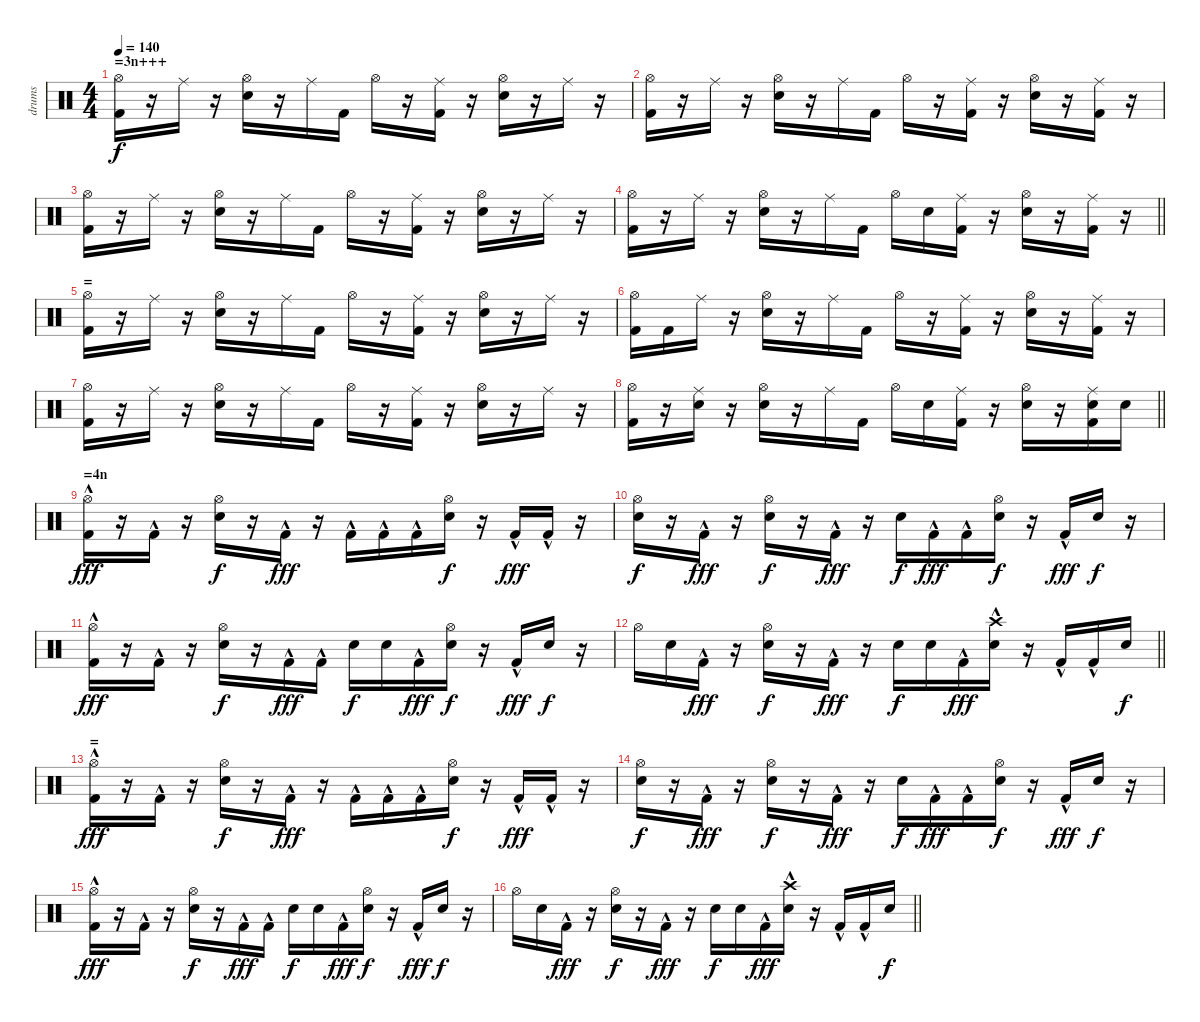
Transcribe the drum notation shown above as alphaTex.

\track ("drums" "drums") {instrument percussion}
\staff {score}
\articulation defaults
\ts (4 4)
\section ("" "=3n+++")
\tempo 140
\clef neutral
\ks c
("Kick (hit) 2" "Hi-Hat (open)").16{dy f} r.16 "Ride (middle)".16 r.16 ("Electric Snare (hit)" "Hi-Hat (open)").16 r.16 "Ride (middle)".16 "Kick (hit) 2".16 "Hi-Hat (open)".16 r.16 ("Kick (hit) 2" "Ride (middle)").16 r.16 ("Electric Snare (hit)" "Hi-Hat (open)").16 r.16 "Ride (middle)".16 r.16 |
("Kick (hit) 2" "Hi-Hat (open)").16 r.16 "Ride (middle)".16 r.16 ("Electric Snare (hit)" "Hi-Hat (open)").16 r.16 "Ride (middle)".16 "Kick (hit) 2".16 "Hi-Hat (open)".16 r.16 ("Kick (hit) 2" "Ride (middle)").16 r.16 ("Electric Snare (hit)" "Hi-Hat (open)").16 r.16 ("Kick (hit) 2" "Ride (middle)").16 r.16 |
("Kick (hit) 2" "Hi-Hat (open)").16 r.16 "Ride (middle)".16 r.16 ("Electric Snare (hit)" "Hi-Hat (open)").16 r.16 "Ride (middle)".16 "Kick (hit) 2".16 "Hi-Hat (open)".16 r.16 ("Kick (hit) 2" "Ride (middle)").16 r.16 ("Electric Snare (hit)" "Hi-Hat (open)").16 r.16 "Ride (middle)".16 r.16 |
\barLineRight lightlight
("Kick (hit) 2" "Hi-Hat (open)").16 r.16 "Ride (middle)".16 r.16 ("Electric Snare (hit)" "Hi-Hat (open)").16 r.16 "Ride (middle)".16 "Kick (hit) 2".16 "Hi-Hat (open)".16 "Electric Snare (hit)".16 ("Kick (hit) 2" "Ride (middle)").16 r.16 ("Electric Snare (hit)" "Hi-Hat (open)").16 r.16 ("Kick (hit) 2" "Ride (middle)").16 r.16 |
\section ("" "=")
("Kick (hit) 2" "Hi-Hat (open)").16 r.16 "Ride (middle)".16 r.16 ("Electric Snare (hit)" "Hi-Hat (open)").16 r.16 "Ride (middle)".16 "Kick (hit) 2".16 "Hi-Hat (open)".16 r.16 ("Kick (hit) 2" "Ride (middle)").16 r.16 ("Electric Snare (hit)" "Hi-Hat (open)").16 r.16 "Ride (middle)".16 r.16 |
("Kick (hit) 2" "Hi-Hat (open)").16 "Kick (hit) 2".16 "Ride (middle)".16 r.16 ("Electric Snare (hit)" "Hi-Hat (open)").16 r.16 "Ride (middle)".16 "Kick (hit) 2".16 "Hi-Hat (open)".16 r.16 ("Kick (hit) 2" "Ride (middle)").16 r.16 ("Electric Snare (hit)" "Hi-Hat (open)").16 r.16 ("Kick (hit) 2" "Ride (middle)").16 r.16 |
("Kick (hit) 2" "Hi-Hat (open)").16 r.16 "Ride (middle)".16 r.16 ("Electric Snare (hit)" "Hi-Hat (open)").16 r.16 "Ride (middle)".16 "Kick (hit) 2".16 "Hi-Hat (open)".16 r.16 ("Kick (hit) 2" "Ride (middle)").16 r.16 ("Electric Snare (hit)" "Hi-Hat (open)").16 r.16 "Ride (middle)".16 r.16 |
\barLineRight lightlight
("Kick (hit) 2" "Hi-Hat (open)").16 r.16 ("Electric Snare (hit)" "Ride (middle)").16 r.16 ("Electric Snare (hit)" "Hi-Hat (open)").16 r.16 "Ride (middle)".16 "Kick (hit) 2".16 "Hi-Hat (open)".16 "Electric Snare (hit)".16 ("Kick (hit) 2" "Ride (middle)").16 r.16 ("Electric Snare (hit)" "Hi-Hat (open)").16 r.16 ("Kick (hit) 2" "Electric Snare (hit)" "Ride (middle)").16 "Electric Snare (hit)".16 |
\section ("" "=4n")
("Kick (hit) 2"{hac} "Hi-Hat (open)").16{dy fff} r.16 "Kick (hit) 2"{hac}.16 r.16 ("Electric Snare (hit)" "Hi-Hat (open)").16{dy f} r.16 "Kick (hit) 2"{hac}.16{dy fff} r.16 "Kick (hit) 2"{hac}.16 "Kick (hit) 2"{hac}.16 "Kick (hit) 2"{hac}.16 ("Electric Snare (hit)" "Hi-Hat (open)").16{dy f} r.16 "Kick (hit) 2"{hac}.16{dy fff} "Kick (hit) 2"{hac}.16 r.16 |
("Electric Snare (hit)" "Hi-Hat (open)").16{dy f} r.16 "Kick (hit) 2"{hac}.16{dy fff} r.16 ("Electric Snare (hit)" "Hi-Hat (open)").16{dy f} r.16 "Kick (hit) 2"{hac}.16{dy fff} r.16 "Electric Snare (hit)".16{dy f} "Kick (hit) 2"{hac}.16{dy fff} "Kick (hit) 2"{hac}.16 ("Electric Snare (hit)" "Hi-Hat (open)").16{dy f} r.16 "Kick (hit) 2"{hac}.16{dy fff} "Electric Snare (hit)".16{dy f} r.16 |
("Kick (hit) 2"{hac} "Hi-Hat (open)").16{dy fff} r.16 "Kick (hit) 2"{hac}.16 r.16 ("Electric Snare (hit)" "Hi-Hat (open)").16{dy f} r.16 "Kick (hit) 2"{hac}.16{dy fff} "Kick (hit) 2"{hac}.16 "Electric Snare (hit)".16{dy f} "Electric Snare (hit)".16 "Kick (hit) 2"{hac}.16{dy fff} ("Electric Snare (hit)" "Hi-Hat (open)").16{dy f} r.16 "Kick (hit) 2"{hac}.16{dy fff} "Electric Snare (hit)".16{dy f} r.16 |
\barLineRight lightlight "Hi-Hat (open)".16 "Electric Snare (hit)".16 "Kick (hit) 2"{hac}.16{dy fff}
r.16 ("Electric Snare (hit)" "Hi-Hat (open)").16{dy f} r.16 "Kick (hit) 2"{hac}.16{dy fff} r.16 "Electric Snare (hit)".16{dy f} "Electric Snare (hit)".16 "Kick (hit) 2"{hac}.16{dy fff} ("Electric Snare (hit)" "Crash high (hit)"{hac}).16 r.16 "Kick (hit) 2"{hac}.16 "Kick (hit) 2"{hac}.16 "Electric Snare (hit)".16{dy f} |
\section ("" "=")
("Kick (hit) 2"{hac} "Hi-Hat (open)").16{dy fff} r.16 "Kick (hit) 2"{hac}.16 r.16 ("Electric Snare (hit)" "Hi-Hat (open)").16{dy f} r.16 "Kick (hit) 2"{hac}.16{dy fff} r.16 "Kick (hit) 2"{hac}.16 "Kick (hit) 2"{hac}.16 "Kick (hit) 2"{hac}.16 ("Electric Snare (hit)" "Hi-Hat (open)").16{dy f} r.16 "Kick (hit) 2"{hac}.16{dy fff} "Kick (hit) 2"{hac}.16 r.16 |
("Electric Snare (hit)" "Hi-Hat (open)").16{dy f} r.16 "Kick (hit) 2"{hac}.16{dy fff} r.16 ("Electric Snare (hit)" "Hi-Hat (open)").16{dy f} r.16 "Kick (hit) 2"{hac}.16{dy fff} r.16 "Electric Snare (hit)".16{dy f} "Kick (hit) 2"{hac}.16{dy fff} "Kick (hit) 2"{hac}.16 ("Electric Snare (hit)" "Hi-Hat (open)").16{dy f} r.16 "Kick (hit) 2"{hac}.16{dy fff} "Electric Snare (hit)".16{dy f} r.16 |
("Kick (hit) 2"{hac} "Hi-Hat (open)").16{dy fff} r.16 "Kick (hit) 2"{hac}.16 r.16 ("Electric Snare (hit)" "Hi-Hat (open)").16{dy f} r.16 "Kick (hit) 2"{hac}.16{dy fff} "Kick (hit) 2"{hac}.16 "Electric Snare (hit)".16{dy f} "Electric Snare (hit)".16 "Kick (hit) 2"{hac}.16{dy fff} ("Electric Snare (hit)" "Hi-Hat (open)").16{dy f} r.16 "Kick (hit) 2"{hac}.16{dy fff} "Electric Snare (hit)".16{dy f} r.16 |
\barLineRight lightlight "Hi-Hat (open)".16 "Electric Snare (hit)".16 "Kick (hit) 2"{hac}.16{dy fff}
r.16 ("Electric Snare (hit)" "Hi-Hat (open)").16{dy f} r.16 "Kick (hit) 2"{hac}.16{dy fff} r.16 "Electric Snare (hit)".16{dy f} "Electric Snare (hit)".16 "Kick (hit) 2"{hac}.16{dy fff} ("Electric Snare (hit)" "Crash high (hit)"{hac}).16 r.16 "Kick (hit) 2"{hac}.16 "Kick (hit) 2"{hac}.16 "Electric Snare (hit)".16{dy f}
